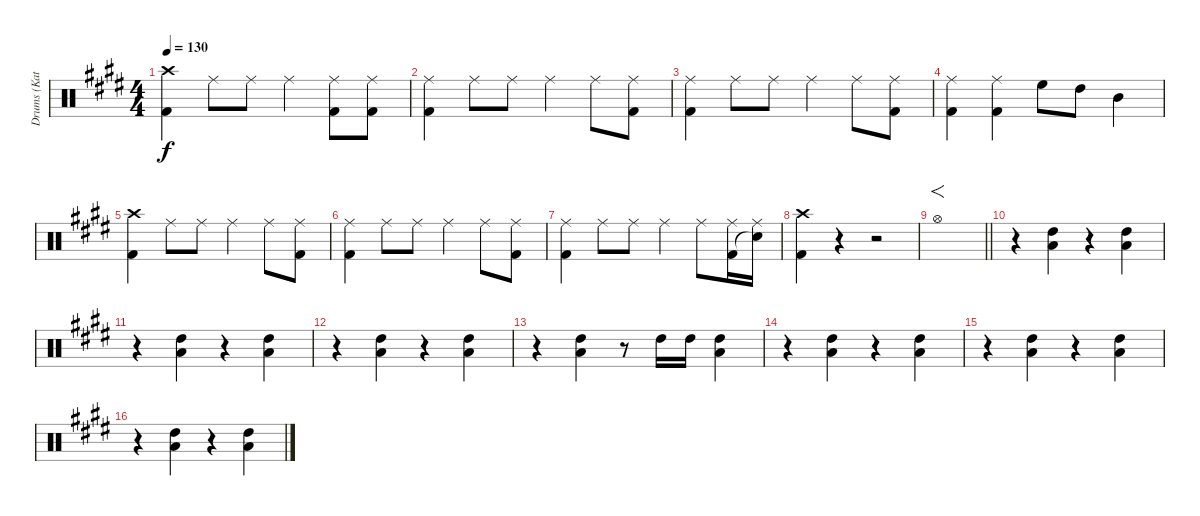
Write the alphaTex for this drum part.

\track ("Drums (Katsuji)" "Drums (Kat") {instrument percussion}
\staff {score}
\articulation defaults
\ts (4 4)
\tempo 130
\clef neutral
\ks e
("Crash high (hit)" "Kick (hit) 2").4{dy f} "Ride (middle)".8 "Ride (middle)".8 "Ride (middle)".4 ("Ride (middle)" "Kick (hit) 2").8 ("Ride (middle)" "Kick (hit) 2").8 |
("Ride (middle)" "Kick (hit) 2").4 "Ride (middle)".8 "Ride (middle)".8 "Ride (middle)".4 "Ride (middle)".8 ("Ride (middle)" "Kick (hit) 2").8 |
("Ride (middle)" "Kick (hit) 2").4 "Ride (middle)".8 "Ride (middle)".8 "Ride (middle)".4 "Ride (middle)".8 ("Ride (middle)" "Kick (hit) 2").8 |
("Ride (middle)" "Kick (hit) 2").4 ("Ride (middle)" "Kick (hit) 2").4 "High Floor Tom (hit)".8 "High Tom (hit)".8 "Mid Tom (hit)".4 |
("Crash high (hit)" "Kick (hit) 2").4 "Ride (middle)".8 "Ride (middle)".8 "Ride (middle)".4 "Ride (middle)".8 ("Ride (middle)" "Kick (hit) 2").8 |
("Ride (middle)" "Kick (hit) 2").4 "Ride (middle)".8 "Ride (middle)".8 "Ride (middle)".4 "Ride (middle)".8 ("Ride (middle)" "Kick (hit) 2").8 |
("Ride (middle)" "Kick (hit) 2").4 "Ride (middle)".8 "Ride (middle)".8 "Ride (middle)".4 "Ride (middle)".8 ("Ride (middle)" "Kick (hit) 2").16 ("Ride (middle)" "Snare (hit)"{t}).16 |
("Crash high (hit)" "Kick (hit) 2").4 r.4 r.2 |
\barLineRight lightlight "Hi-Hat (open)".1{f}
|
r.4 ("High Tom (hit)" "Low Tom (hit)").4 r.4 ("High Tom (hit)" "Low Tom (hit)").4 |
r.4 ("High Tom (hit)" "Low Tom (hit)").4 r.4 ("High Tom (hit)" "Low Tom (hit)").4 |
r.4 ("High Tom (hit)" "Low Tom (hit)").4 r.4 ("High Tom (hit)" "Low Tom (hit)").4 |
r.4 ("High Tom (hit)" "Low Tom (hit)").4 r.8 "High Tom (hit)".16 "High Tom (hit)".16 ("High Tom (hit)" "Low Tom (hit)").4 |
r.4 ("High Tom (hit)" "Low Tom (hit)").4 r.4 ("High Tom (hit)" "Low Tom (hit)").4 |
r.4 ("High Tom (hit)" "Low Tom (hit)").4 r.4 ("High Tom (hit)" "Low Tom (hit)").4 |
r.4 ("High Tom (hit)" "Low Tom (hit)").4 r.4 ("High Tom (hit)" "Low Tom (hit)").4
